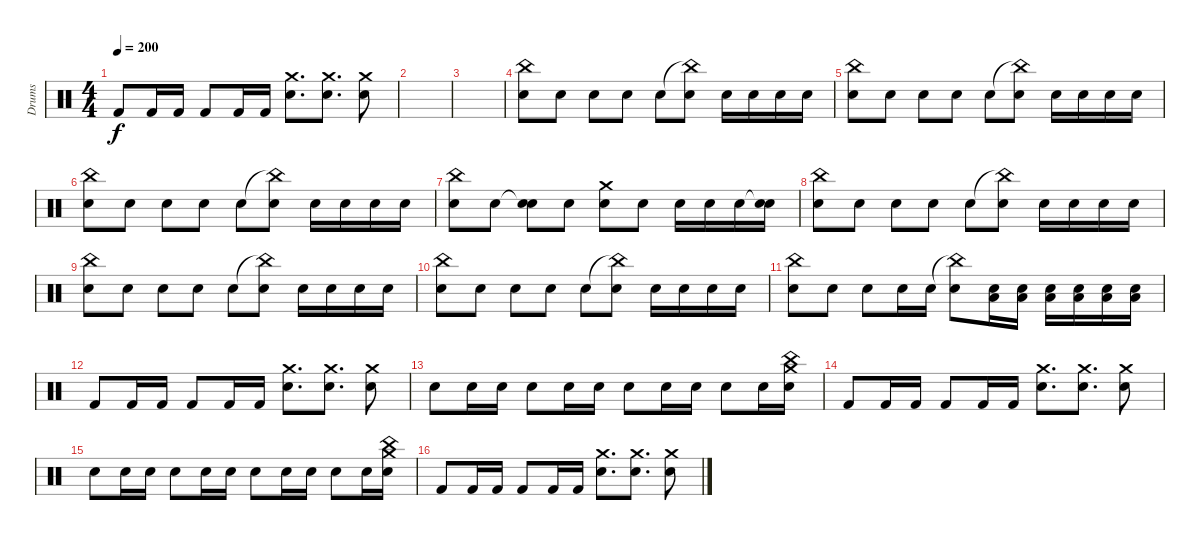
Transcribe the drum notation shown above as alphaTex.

\track ("Drums" "Drums") {instrument percussion}
\staff {score}
\articulation defaults
\ts (4 4)
\tempo 200
\clef neutral
\ks c "Kick (hit) 2".8{dy f} "Kick (hit) 2".16 "Kick (hit) 2".16 "Kick (hit) 2".8 "Kick (hit) 2".16 "Kick (hit) 2".16
("Snare (hit) 2" "Crash medium (hit)").8{d} ("Snare (hit) 2" "Crash medium (hit)").8{d} ("Snare (hit) 2" "Crash medium (hit)").8 |
|
|
("China (hit)" "Snare (hit) 2").8 "Snare (hit) 2".8 "Snare (hit) 2".8 "Snare (hit) 2".8 "Snare (hit) 2".8 ("China (hit)"{t} "Snare (hit) 2").8 "Snare (hit) 2".16 "Snare (hit) 2".16 "Snare (hit) 2".16 "Snare (hit) 2".16 |
("China (hit)" "Snare (hit) 2").8 "Snare (hit) 2".8 "Snare (hit) 2".8 "Snare (hit) 2".8 "Snare (hit) 2".8 ("China (hit)"{t} "Snare (hit) 2").8 "Snare (hit) 2".16 "Snare (hit) 2".16 "Snare (hit) 2".16 "Snare (hit) 2".16 |
("China (hit)" "Snare (hit) 2").8 "Snare (hit) 2".8 "Snare (hit) 2".8 "Snare (hit) 2".8 "Snare (hit) 2".8 ("China (hit)"{t} "Snare (hit) 2").8 "Snare (hit) 2".16 "Snare (hit) 2".16 "Snare (hit) 2".16 "Snare (hit) 2".16 |
("China (hit)" "Snare (hit) 2").8 "Snare (hit) 2".8 ("Snare (hit)"{t} "Snare (hit) 2").8 "Snare (hit) 2".8 ("Crash medium (hit)" "Snare (hit) 2").8 "Snare (hit) 2".8 "Snare (hit) 2".16 "Snare (hit) 2".16 "Snare (hit) 2".16 ("Snare (hit)"{t} "Snare (hit) 2").16 |
("China (hit)" "Snare (hit) 2").8 "Snare (hit) 2".8 "Snare (hit) 2".8 "Snare (hit) 2".8 "Snare (hit) 2".8 ("China (hit)"{t} "Snare (hit) 2").8 "Snare (hit) 2".16 "Snare (hit) 2".16 "Snare (hit) 2".16 "Snare (hit) 2".16 |
("China (hit)" "Snare (hit) 2").8 "Snare (hit) 2".8 "Snare (hit) 2".8 "Snare (hit) 2".8 "Snare (hit) 2".8 ("China (hit)"{t} "Snare (hit) 2").8 "Snare (hit) 2".16 "Snare (hit) 2".16 "Snare (hit) 2".16 "Snare (hit) 2".16 |
("China (hit)" "Snare (hit) 2").8 "Snare (hit) 2".8 "Snare (hit) 2".8 "Snare (hit) 2".8 "Snare (hit) 2".8 ("China (hit)"{t} "Snare (hit) 2").8 "Snare (hit) 2".16 "Snare (hit) 2".16 "Snare (hit) 2".16 "Snare (hit) 2".16 |
("China (hit)" "Snare (hit) 2").8 "Snare (hit) 2".8 "Snare (hit) 2".8 "Snare (hit) 2".16 "Snare (hit) 2".16 ("China (hit)"{t} "Snare (hit) 2").8 ("Low Floor Tom (hit)" "Electric Snare (hit)").16 ("Low Floor Tom (hit)" "Electric Snare (hit)").16 ("Low Floor Tom (hit)" "Electric Snare (hit)").16 ("Low Floor Tom (hit)" "Electric Snare (hit)").16 ("Low Floor Tom (hit)" "Electric Snare (hit)").16 ("Low Floor Tom (hit)" "Electric Snare (hit)").16 |
"Kick (hit) 2".8 "Kick (hit) 2".16 "Kick (hit) 2".16 "Kick (hit) 2".8 "Kick (hit) 2".16 "Kick (hit) 2".16 ("Snare (hit) 2" "Crash medium (hit)").8{d} ("Snare (hit) 2" "Crash medium (hit)").8{d} ("Snare (hit) 2" "Crash medium (hit)").8 |
"Snare (hit) 2".8 "Snare (hit) 2".16 "Snare (hit) 2".16 "Snare (hit) 2".8 "Snare (hit) 2".16 "Snare (hit) 2".16 "Snare (hit) 2".8 "Snare (hit) 2".16 "Snare (hit) 2".16 "Snare (hit) 2".8 "Snare (hit) 2".16 ("Snare (hit) 2" "Crash medium (hit)" "China (hit)").16 |
"Kick (hit) 2".8 "Kick (hit) 2".16 "Kick (hit) 2".16 "Kick (hit) 2".8 "Kick (hit) 2".16 "Kick (hit) 2".16 ("Snare (hit) 2" "Crash medium (hit)").8{d} ("Snare (hit) 2" "Crash medium (hit)").8{d} ("Snare (hit) 2" "Crash medium (hit)").8 |
"Snare (hit) 2".8 "Snare (hit) 2".16 "Snare (hit) 2".16 "Snare (hit) 2".8 "Snare (hit) 2".16 "Snare (hit) 2".16 "Snare (hit) 2".8 "Snare (hit) 2".16 "Snare (hit) 2".16 "Snare (hit) 2".8 "Snare (hit) 2".16 ("Snare (hit) 2" "Crash medium (hit)" "China (hit)").16 |
"Kick (hit) 2".8 "Kick (hit) 2".16 "Kick (hit) 2".16 "Kick (hit) 2".8 "Kick (hit) 2".16 "Kick (hit) 2".16 ("Snare (hit) 2" "Crash medium (hit)").8{d} ("Snare (hit) 2" "Crash medium (hit)").8{d} ("Snare (hit) 2" "Crash medium (hit)").8
